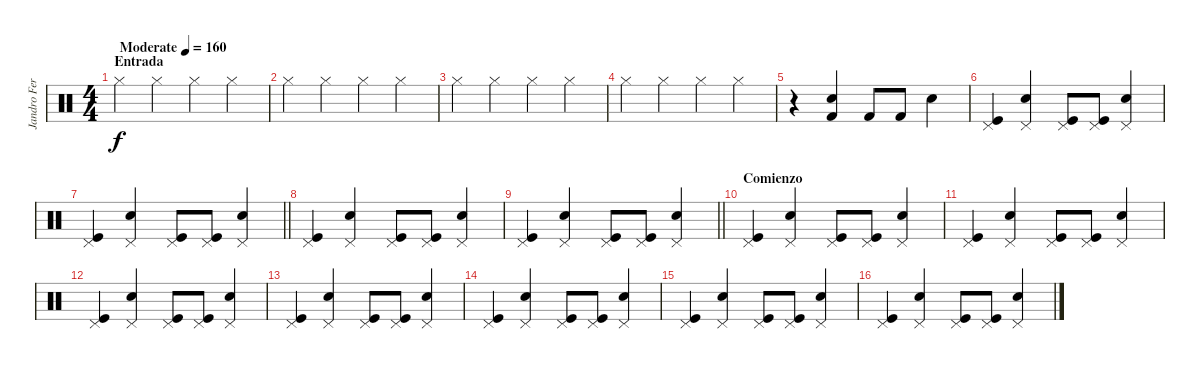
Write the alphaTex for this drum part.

\track ("Jandro Fernández" "Jandro Fer") {instrument percussion}
\staff
\articulation defaults
\ts (4 4)
\section ("" "Entrada")
\tempo (160 "Moderate")
\clef neutral
\ks c "Hi-Hat (closed)".4{dy f} "Hi-Hat (closed)".4 "Hi-Hat (closed)".4 "Hi-Hat (closed)".4
|
"Hi-Hat (closed)".4 "Hi-Hat (closed)".4 "Hi-Hat (closed)".4 "Hi-Hat (closed)".4 |
"Hi-Hat (closed)".4 "Hi-Hat (closed)".4 "Hi-Hat (closed)".4 "Hi-Hat (closed)".4 |
"Hi-Hat (closed)".4 "Hi-Hat (closed)".4 "Hi-Hat (closed)".4 "Hi-Hat (closed)".4 |
r.4 ("Snare (hit) 2" "Kick (hit) 2").4 "Kick (hit) 2".8 "Kick (hit) 2".8 "Snare (hit) 2".4 |
("Pedal Hi-Hat (hit)" "Kick (hit)").4 ("Pedal Hi-Hat (hit)" "Snare (hit) 2").4 ("Pedal Hi-Hat (hit)" "Kick (hit)").8 ("Pedal Hi-Hat (hit)" "Kick (hit)").8 ("Pedal Hi-Hat (hit)" "Snare (hit) 2").4 |
\barLineRight lightlight
("Pedal Hi-Hat (hit)" "Kick (hit)").4 ("Pedal Hi-Hat (hit)" "Snare (hit) 2").4 ("Pedal Hi-Hat (hit)" "Kick (hit)").8 ("Pedal Hi-Hat (hit)" "Kick (hit)").8 ("Pedal Hi-Hat (hit)" "Snare (hit) 2").4 |
("Pedal Hi-Hat (hit)" "Kick (hit)").4 ("Pedal Hi-Hat (hit)" "Snare (hit) 2").4 ("Pedal Hi-Hat (hit)" "Kick (hit)").8 ("Pedal Hi-Hat (hit)" "Kick (hit)").8 ("Pedal Hi-Hat (hit)" "Snare (hit) 2").4 |
\barLineRight lightlight
("Pedal Hi-Hat (hit)" "Kick (hit)").4 ("Pedal Hi-Hat (hit)" "Snare (hit) 2").4 ("Pedal Hi-Hat (hit)" "Kick (hit)").8 ("Pedal Hi-Hat (hit)" "Kick (hit)").8 ("Pedal Hi-Hat (hit)" "Snare (hit) 2").4 |
\section ("" "Comienzo")
("Pedal Hi-Hat (hit)" "Kick (hit)").4 ("Pedal Hi-Hat (hit)" "Snare (hit) 2").4 ("Pedal Hi-Hat (hit)" "Kick (hit)").8 ("Pedal Hi-Hat (hit)" "Kick (hit)").8 ("Pedal Hi-Hat (hit)" "Snare (hit) 2").4 |
("Pedal Hi-Hat (hit)" "Kick (hit)").4 ("Pedal Hi-Hat (hit)" "Snare (hit) 2").4 ("Pedal Hi-Hat (hit)" "Kick (hit)").8 ("Pedal Hi-Hat (hit)" "Kick (hit)").8 ("Pedal Hi-Hat (hit)" "Snare (hit) 2").4 |
("Pedal Hi-Hat (hit)" "Kick (hit)").4 ("Pedal Hi-Hat (hit)" "Snare (hit) 2").4 ("Pedal Hi-Hat (hit)" "Kick (hit)").8 ("Pedal Hi-Hat (hit)" "Kick (hit)").8 ("Pedal Hi-Hat (hit)" "Snare (hit) 2").4 |
("Pedal Hi-Hat (hit)" "Kick (hit)").4 ("Pedal Hi-Hat (hit)" "Snare (hit) 2").4 ("Pedal Hi-Hat (hit)" "Kick (hit)").8 ("Pedal Hi-Hat (hit)" "Kick (hit)").8 ("Pedal Hi-Hat (hit)" "Snare (hit) 2").4 |
("Pedal Hi-Hat (hit)" "Kick (hit)").4 ("Pedal Hi-Hat (hit)" "Snare (hit) 2").4 ("Pedal Hi-Hat (hit)" "Kick (hit)").8 ("Pedal Hi-Hat (hit)" "Kick (hit)").8 ("Pedal Hi-Hat (hit)" "Snare (hit) 2").4 |
("Pedal Hi-Hat (hit)" "Kick (hit)").4 ("Pedal Hi-Hat (hit)" "Snare (hit) 2").4 ("Pedal Hi-Hat (hit)" "Kick (hit)").8 ("Pedal Hi-Hat (hit)" "Kick (hit)").8 ("Pedal Hi-Hat (hit)" "Snare (hit) 2").4 |
("Pedal Hi-Hat (hit)" "Kick (hit)").4 ("Pedal Hi-Hat (hit)" "Snare (hit) 2").4 ("Pedal Hi-Hat (hit)" "Kick (hit)").8 ("Pedal Hi-Hat (hit)" "Kick (hit)").8 ("Pedal Hi-Hat (hit)" "Snare (hit) 2").4
